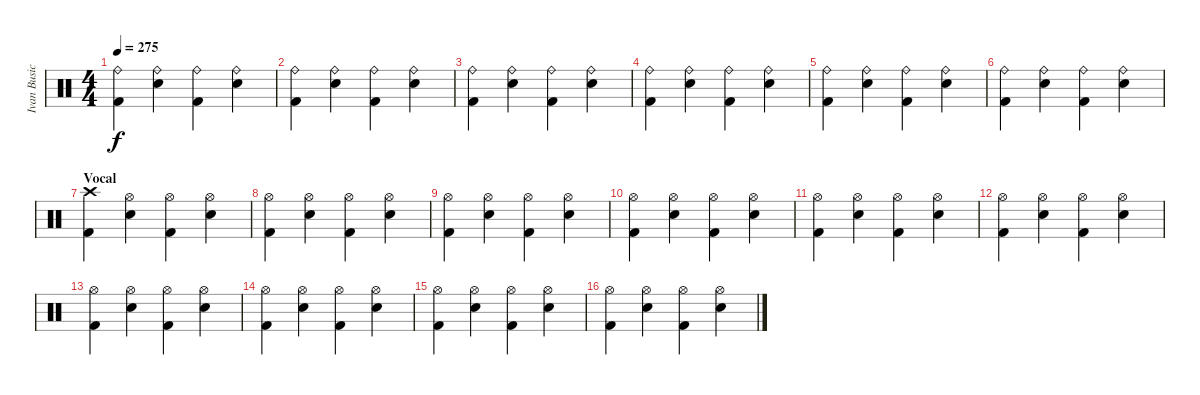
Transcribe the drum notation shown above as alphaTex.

\track ("Ivan Busic" "Ivan Busic") {instrument percussion}
\staff {score}
\articulation defaults
\ts (4 4)
\tempo 275
\clef neutral
\ks c
("Ride (bell)" "Kick (hit) 2").4{dy f} ("Ride (bell)" "Electric Snare (hit)").4 ("Ride (bell)" "Kick (hit) 2").4 ("Ride (bell)" "Electric Snare (hit)").4 |
("Ride (bell)" "Kick (hit) 2").4 ("Ride (bell)" "Electric Snare (hit)").4 ("Ride (bell)" "Kick (hit) 2").4 ("Ride (bell)" "Electric Snare (hit)").4 |
("Ride (bell)" "Kick (hit) 2").4 ("Ride (bell)" "Electric Snare (hit)").4 ("Ride (bell)" "Kick (hit) 2").4 ("Ride (bell)" "Electric Snare (hit)").4 |
("Ride (bell)" "Kick (hit) 2").4 ("Ride (bell)" "Electric Snare (hit)").4 ("Ride (bell)" "Kick (hit) 2").4 ("Ride (bell)" "Electric Snare (hit)").4 |
("Ride (bell)" "Kick (hit) 2").4 ("Ride (bell)" "Electric Snare (hit)").4 ("Ride (bell)" "Kick (hit) 2").4 ("Ride (bell)" "Electric Snare (hit)").4 |
("Ride (bell)" "Kick (hit) 2").4 ("Ride (bell)" "Electric Snare (hit)").4 ("Ride (bell)" "Kick (hit) 2").4 ("Ride (bell)" "Electric Snare (hit)").4 |
\section ("" "Vocal")
("Crash high (hit)" "Kick (hit) 2").4 ("Hi-Hat (open)" "Electric Snare (hit)").4 ("Hi-Hat (open)" "Kick (hit) 2").4 ("Hi-Hat (open)" "Electric Snare (hit)").4 |
("Hi-Hat (open)" "Kick (hit) 2").4 ("Hi-Hat (open)" "Electric Snare (hit)").4 ("Hi-Hat (open)" "Kick (hit) 2").4 ("Hi-Hat (open)" "Electric Snare (hit)").4 |
("Hi-Hat (open)" "Kick (hit) 2").4 ("Hi-Hat (open)" "Electric Snare (hit)").4 ("Hi-Hat (open)" "Kick (hit) 2").4 ("Hi-Hat (open)" "Electric Snare (hit)").4 |
("Hi-Hat (open)" "Kick (hit) 2").4 ("Hi-Hat (open)" "Electric Snare (hit)").4 ("Hi-Hat (open)" "Kick (hit) 2").4 ("Hi-Hat (open)" "Electric Snare (hit)").4 |
("Hi-Hat (open)" "Kick (hit) 2").4 ("Hi-Hat (open)" "Electric Snare (hit)").4 ("Hi-Hat (open)" "Kick (hit) 2").4 ("Hi-Hat (open)" "Electric Snare (hit)").4 |
("Hi-Hat (open)" "Kick (hit) 2").4 ("Hi-Hat (open)" "Electric Snare (hit)").4 ("Hi-Hat (open)" "Kick (hit) 2").4 ("Hi-Hat (open)" "Electric Snare (hit)").4 |
("Hi-Hat (open)" "Kick (hit) 2").4 ("Hi-Hat (open)" "Electric Snare (hit)").4 ("Hi-Hat (open)" "Kick (hit) 2").4 ("Hi-Hat (open)" "Electric Snare (hit)").4 |
("Hi-Hat (open)" "Kick (hit) 2").4 ("Hi-Hat (open)" "Electric Snare (hit)").4 ("Hi-Hat (open)" "Kick (hit) 2").4 ("Hi-Hat (open)" "Electric Snare (hit)").4 |
("Hi-Hat (open)" "Kick (hit) 2").4 ("Hi-Hat (open)" "Electric Snare (hit)").4 ("Hi-Hat (open)" "Kick (hit) 2").4 ("Hi-Hat (open)" "Electric Snare (hit)").4 |
("Hi-Hat (open)" "Kick (hit) 2").4 ("Hi-Hat (open)" "Electric Snare (hit)").4 ("Hi-Hat (open)" "Kick (hit) 2").4 ("Hi-Hat (open)" "Electric Snare (hit)").4
